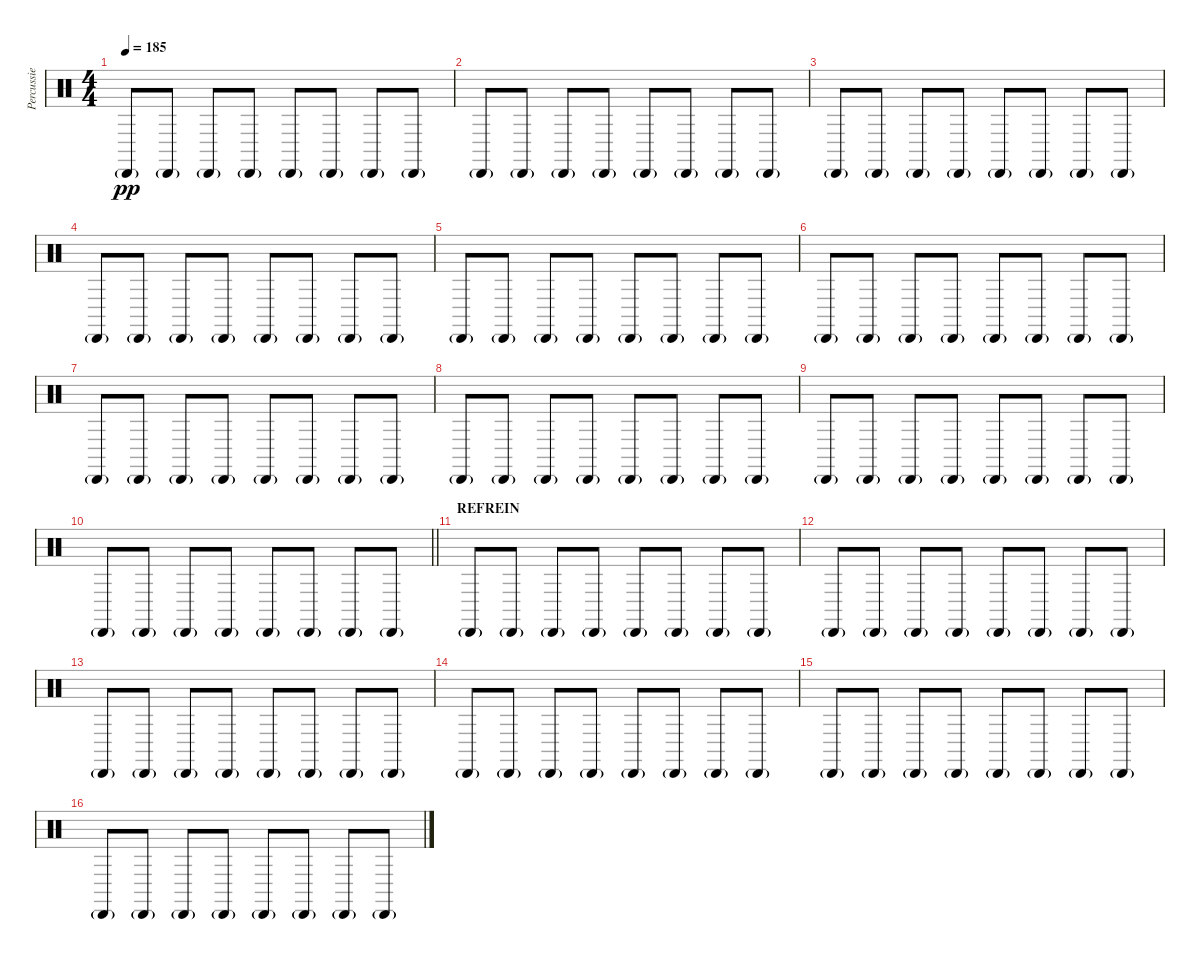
\track ("Percussie" "Percussie") {instrument percussion}
\staff {score}
\articulation defaults
\ts (4 4)
\tempo 185
\clef neutral
\ks c "Cabasa (hit)"{g}.8{dy pp} "Cabasa (hit)"{g}.8 "Cabasa (hit)"{g}.8 "Cabasa (hit)"{g}.8 "Cabasa (hit)"{g}.8 "Cabasa (hit)"{g}.8 "Cabasa (hit)"{g}.8 "Cabasa (hit)"{g}.8
|
"Cabasa (hit)"{g}.8 "Cabasa (hit)"{g}.8 "Cabasa (hit)"{g}.8 "Cabasa (hit)"{g}.8 "Cabasa (hit)"{g}.8 "Cabasa (hit)"{g}.8 "Cabasa (hit)"{g}.8 "Cabasa (hit)"{g}.8 |
"Cabasa (hit)"{g}.8 "Cabasa (hit)"{g}.8 "Cabasa (hit)"{g}.8 "Cabasa (hit)"{g}.8 "Cabasa (hit)"{g}.8 "Cabasa (hit)"{g}.8 "Cabasa (hit)"{g}.8 "Cabasa (hit)"{g}.8 |
"Cabasa (hit)"{g}.8 "Cabasa (hit)"{g}.8 "Cabasa (hit)"{g}.8 "Cabasa (hit)"{g}.8 "Cabasa (hit)"{g}.8 "Cabasa (hit)"{g}.8 "Cabasa (hit)"{g}.8 "Cabasa (hit)"{g}.8 |
"Cabasa (hit)"{g}.8 "Cabasa (hit)"{g}.8 "Cabasa (hit)"{g}.8 "Cabasa (hit)"{g}.8 "Cabasa (hit)"{g}.8 "Cabasa (hit)"{g}.8 "Cabasa (hit)"{g}.8 "Cabasa (hit)"{g}.8 |
"Cabasa (hit)"{g}.8 "Cabasa (hit)"{g}.8 "Cabasa (hit)"{g}.8 "Cabasa (hit)"{g}.8 "Cabasa (hit)"{g}.8 "Cabasa (hit)"{g}.8 "Cabasa (hit)"{g}.8 "Cabasa (hit)"{g}.8 |
"Cabasa (hit)"{g}.8 "Cabasa (hit)"{g}.8 "Cabasa (hit)"{g}.8 "Cabasa (hit)"{g}.8 "Cabasa (hit)"{g}.8 "Cabasa (hit)"{g}.8 "Cabasa (hit)"{g}.8 "Cabasa (hit)"{g}.8 |
"Cabasa (hit)"{g}.8 "Cabasa (hit)"{g}.8 "Cabasa (hit)"{g}.8 "Cabasa (hit)"{g}.8 "Cabasa (hit)"{g}.8 "Cabasa (hit)"{g}.8 "Cabasa (hit)"{g}.8 "Cabasa (hit)"{g}.8 |
"Cabasa (hit)"{g}.8 "Cabasa (hit)"{g}.8 "Cabasa (hit)"{g}.8 "Cabasa (hit)"{g}.8 "Cabasa (hit)"{g}.8 "Cabasa (hit)"{g}.8 "Cabasa (hit)"{g}.8 "Cabasa (hit)"{g}.8 |
\barLineRight lightlight "Cabasa (hit)"{g}.8 "Cabasa (hit)"{g}.8 "Cabasa (hit)"{g}.8 "Cabasa (hit)"{g}.8 "Cabasa (hit)"{g}.8 "Cabasa (hit)"{g}.8 "Cabasa (hit)"{g}.8 "Cabasa (hit)"{g}.8
|
\section ("" "REFREIN")
"Cabasa (hit)"{g}.8 "Cabasa (hit)"{g}.8 "Cabasa (hit)"{g}.8 "Cabasa (hit)"{g}.8 "Cabasa (hit)"{g}.8 "Cabasa (hit)"{g}.8 "Cabasa (hit)"{g}.8 "Cabasa (hit)"{g}.8 |
"Cabasa (hit)"{g}.8 "Cabasa (hit)"{g}.8 "Cabasa (hit)"{g}.8 "Cabasa (hit)"{g}.8 "Cabasa (hit)"{g}.8 "Cabasa (hit)"{g}.8 "Cabasa (hit)"{g}.8 "Cabasa (hit)"{g}.8 |
"Cabasa (hit)"{g}.8 "Cabasa (hit)"{g}.8 "Cabasa (hit)"{g}.8 "Cabasa (hit)"{g}.8 "Cabasa (hit)"{g}.8 "Cabasa (hit)"{g}.8 "Cabasa (hit)"{g}.8 "Cabasa (hit)"{g}.8 |
"Cabasa (hit)"{g}.8 "Cabasa (hit)"{g}.8 "Cabasa (hit)"{g}.8 "Cabasa (hit)"{g}.8 "Cabasa (hit)"{g}.8 "Cabasa (hit)"{g}.8 "Cabasa (hit)"{g}.8 "Cabasa (hit)"{g}.8 |
"Cabasa (hit)"{g}.8 "Cabasa (hit)"{g}.8 "Cabasa (hit)"{g}.8 "Cabasa (hit)"{g}.8 "Cabasa (hit)"{g}.8 "Cabasa (hit)"{g}.8 "Cabasa (hit)"{g}.8 "Cabasa (hit)"{g}.8 |
"Cabasa (hit)"{g}.8 "Cabasa (hit)"{g}.8 "Cabasa (hit)"{g}.8 "Cabasa (hit)"{g}.8 "Cabasa (hit)"{g}.8 "Cabasa (hit)"{g}.8 "Cabasa (hit)"{g}.8 "Cabasa (hit)"{g}.8
